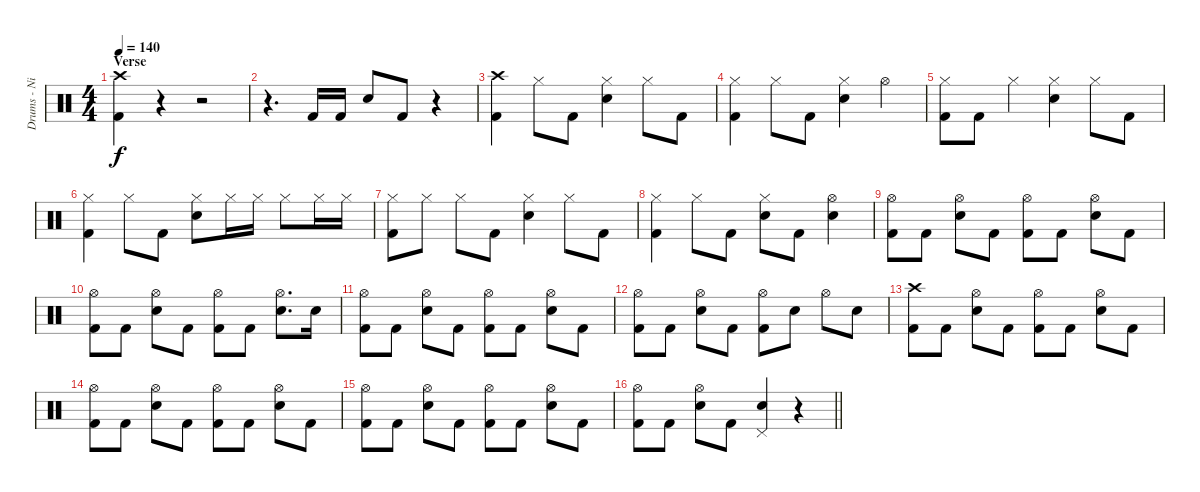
\track ("Drums - Nick" "Drums - Ni") {instrument percussion}
\staff {score}
\articulation defaults
\ts (4 4)
\section ("" "Verse")
\tempo 140
\clef neutral
\ks c
("Crash high (hit)" "Kick (hit) 2").4{dy f} r.4 r.2 |
r.4{d} "Kick (hit) 2".16 "Kick (hit) 2".16 "Snare (hit) 2".8 "Kick (hit) 2".8 r.4 |
("Crash high (hit)" "Kick (hit) 2").4 "Hi-Hat (closed)".8 "Kick (hit) 2".8 ("Hi-Hat (closed)" "Snare (hit) 2").4 "Hi-Hat (closed)".8 "Kick (hit) 2".8 |
("Hi-Hat (closed)" "Kick (hit) 2").4 "Hi-Hat (closed)".8 "Kick (hit) 2".8 ("Hi-Hat (closed)" "Snare (hit) 2").4 "Hi-Hat (open)".4 |
("Hi-Hat (closed)" "Kick (hit) 2").8 "Kick (hit) 2".8 "Hi-Hat (closed)".4 ("Hi-Hat (closed)" "Snare (hit) 2").4 "Hi-Hat (closed)".8 "Kick (hit) 2".8 |
("Hi-Hat (closed)" "Kick (hit) 2").4 "Hi-Hat (closed)".8 "Kick (hit) 2".8 ("Hi-Hat (closed)" "Snare (hit) 2").8 "Hi-Hat (closed)".16 "Hi-Hat (closed)".16 "Hi-Hat (closed)".8 "Hi-Hat (closed)".16 "Hi-Hat (closed)".16 |
("Hi-Hat (closed)" "Kick (hit) 2").8 "Hi-Hat (closed)".8 "Hi-Hat (closed)".8 "Kick (hit) 2".8 ("Hi-Hat (closed)" "Snare (hit) 2").4 "Hi-Hat (closed)".8 "Kick (hit) 2".8 |
("Hi-Hat (closed)" "Kick (hit) 2").4 "Hi-Hat (closed)".8 "Kick (hit) 2".8 ("Hi-Hat (closed)" "Snare (hit) 2").8 "Kick (hit) 2".8 ("Hi-Hat (open)" "Snare (hit) 2").4 |
("Hi-Hat (open)" "Kick (hit) 2").8 "Kick (hit) 2".8 ("Hi-Hat (open)" "Snare (hit) 2").8 "Kick (hit) 2".8 ("Hi-Hat (open)" "Kick (hit) 2").8 "Kick (hit) 2".8 ("Hi-Hat (open)" "Snare (hit) 2").8 "Kick (hit) 2".8 |
("Hi-Hat (open)" "Kick (hit) 2").8 "Kick (hit) 2".8 ("Hi-Hat (open)" "Snare (hit) 2").8 "Kick (hit) 2".8 ("Hi-Hat (open)" "Kick (hit) 2").8 "Kick (hit) 2".8 ("Hi-Hat (open)" "Snare (hit) 2").8{d} "Snare (hit) 2".16 |
("Hi-Hat (open)" "Kick (hit) 2").8 "Kick (hit) 2".8 ("Hi-Hat (open)" "Snare (hit) 2").8 "Kick (hit) 2".8 ("Hi-Hat (open)" "Kick (hit) 2").8 "Kick (hit) 2".8 ("Hi-Hat (open)" "Snare (hit) 2").8 "Kick (hit) 2".8 |
("Hi-Hat (open)" "Kick (hit) 2").8 "Kick (hit) 2".8 ("Hi-Hat (open)" "Snare (hit) 2").8 "Kick (hit) 2".8 ("Hi-Hat (open)" "Kick (hit) 2").8 "Snare (hit) 2".8 "Hi-Hat (open)".8 "Snare (hit) 2".8 |
("Crash high (hit)" "Kick (hit) 2").8 "Kick (hit) 2".8 ("Hi-Hat (open)" "Snare (hit) 2").8 "Kick (hit) 2".8 ("Hi-Hat (open)" "Kick (hit) 2").8 "Kick (hit) 2".8 ("Hi-Hat (open)" "Snare (hit) 2").8 "Kick (hit) 2".8 |
("Hi-Hat (open)" "Kick (hit) 2").8 "Kick (hit) 2".8 ("Hi-Hat (open)" "Snare (hit) 2").8 "Kick (hit) 2".8 ("Hi-Hat (open)" "Kick (hit) 2").8 "Kick (hit) 2".8 ("Hi-Hat (open)" "Snare (hit) 2").8 "Kick (hit) 2".8 |
("Hi-Hat (open)" "Kick (hit) 2").8 "Kick (hit) 2".8 ("Hi-Hat (open)" "Snare (hit) 2").8 "Kick (hit) 2".8 ("Hi-Hat (open)" "Kick (hit) 2").8 "Kick (hit) 2".8 ("Hi-Hat (open)" "Snare (hit) 2").8 "Kick (hit) 2".8 |
\barLineRight lightlight
("Hi-Hat (open)" "Kick (hit) 2").8 "Kick (hit) 2".8 ("Hi-Hat (open)" "Snare (hit) 2").8 "Kick (hit) 2".8 ("Pedal Hi-Hat (hit)" "Snare (hit) 2").4 r.4
